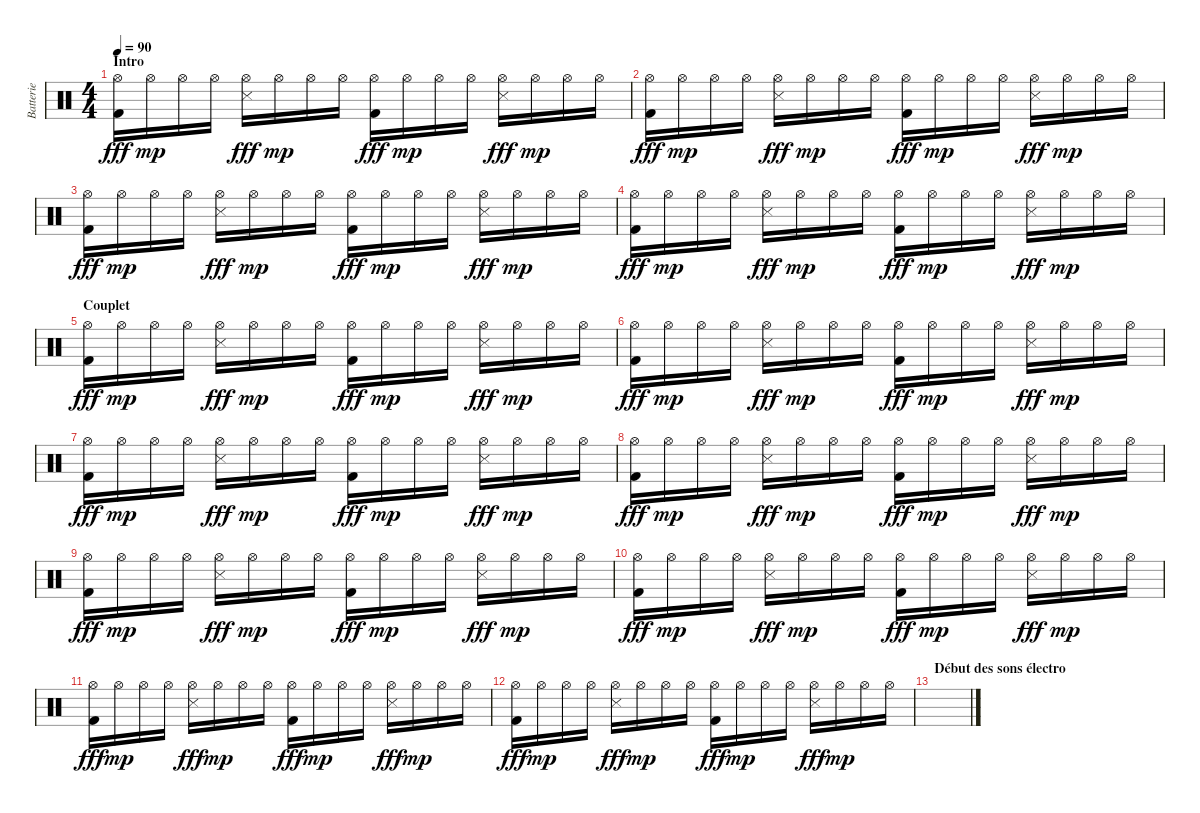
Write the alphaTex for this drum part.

\track ("Batterie" "Batterie") {instrument percussion}
\staff {score}
\articulation defaults
\ts (4 4)
\section ("" "Intro")
\tempo 90
\clef neutral
\ks c
("Hi-Hat (open)" "Kick (hit) 2").16{dy fff} "Hi-Hat (open)".16{dy mp} "Hi-Hat (open)".16 "Hi-Hat (open)".16 ("Hi-Hat (open)" "Snare (side stick) 3").16{dy fff} "Hi-Hat (open)".16{dy mp} "Hi-Hat (open)".16 "Hi-Hat (open)".16 ("Hi-Hat (open)" "Kick (hit) 2").16{dy fff} "Hi-Hat (open)".16{dy mp} "Hi-Hat (open)".16 "Hi-Hat (open)".16 ("Hi-Hat (open)" "Snare (side stick) 3").16{dy fff} "Hi-Hat (open)".16{dy mp} "Hi-Hat (open)".16 "Hi-Hat (open)".16 |
("Hi-Hat (open)" "Kick (hit) 2").16{dy fff} "Hi-Hat (open)".16{dy mp} "Hi-Hat (open)".16 "Hi-Hat (open)".16 ("Hi-Hat (open)" "Snare (side stick) 3").16{dy fff} "Hi-Hat (open)".16{dy mp} "Hi-Hat (open)".16 "Hi-Hat (open)".16 ("Hi-Hat (open)" "Kick (hit) 2").16{dy fff} "Hi-Hat (open)".16{dy mp} "Hi-Hat (open)".16 "Hi-Hat (open)".16 ("Hi-Hat (open)" "Snare (side stick) 3").16{dy fff} "Hi-Hat (open)".16{dy mp} "Hi-Hat (open)".16 "Hi-Hat (open)".16 |
("Hi-Hat (open)" "Kick (hit) 2").16{dy fff} "Hi-Hat (open)".16{dy mp} "Hi-Hat (open)".16 "Hi-Hat (open)".16 ("Hi-Hat (open)" "Snare (side stick) 3").16{dy fff} "Hi-Hat (open)".16{dy mp} "Hi-Hat (open)".16 "Hi-Hat (open)".16 ("Hi-Hat (open)" "Kick (hit) 2").16{dy fff} "Hi-Hat (open)".16{dy mp} "Hi-Hat (open)".16 "Hi-Hat (open)".16 ("Hi-Hat (open)" "Snare (side stick) 3").16{dy fff} "Hi-Hat (open)".16{dy mp} "Hi-Hat (open)".16 "Hi-Hat (open)".16 |
("Hi-Hat (open)" "Kick (hit) 2").16{dy fff} "Hi-Hat (open)".16{dy mp} "Hi-Hat (open)".16 "Hi-Hat (open)".16 ("Hi-Hat (open)" "Snare (side stick) 3").16{dy fff} "Hi-Hat (open)".16{dy mp} "Hi-Hat (open)".16 "Hi-Hat (open)".16 ("Hi-Hat (open)" "Kick (hit) 2").16{dy fff} "Hi-Hat (open)".16{dy mp} "Hi-Hat (open)".16 "Hi-Hat (open)".16 ("Hi-Hat (open)" "Snare (side stick) 3").16{dy fff} "Hi-Hat (open)".16{dy mp} "Hi-Hat (open)".16 "Hi-Hat (open)".16 |
\section ("" "Couplet")
("Hi-Hat (open)" "Kick (hit) 2").16{dy fff} "Hi-Hat (open)".16{dy mp} "Hi-Hat (open)".16 "Hi-Hat (open)".16 ("Hi-Hat (open)" "Snare (side stick) 3").16{dy fff} "Hi-Hat (open)".16{dy mp} "Hi-Hat (open)".16 "Hi-Hat (open)".16 ("Hi-Hat (open)" "Kick (hit) 2").16{dy fff} "Hi-Hat (open)".16{dy mp} "Hi-Hat (open)".16 "Hi-Hat (open)".16 ("Hi-Hat (open)" "Snare (side stick) 3").16{dy fff} "Hi-Hat (open)".16{dy mp} "Hi-Hat (open)".16 "Hi-Hat (open)".16 |
("Hi-Hat (open)" "Kick (hit) 2").16{dy fff} "Hi-Hat (open)".16{dy mp} "Hi-Hat (open)".16 "Hi-Hat (open)".16 ("Hi-Hat (open)" "Snare (side stick) 3").16{dy fff} "Hi-Hat (open)".16{dy mp} "Hi-Hat (open)".16 "Hi-Hat (open)".16 ("Hi-Hat (open)" "Kick (hit) 2").16{dy fff} "Hi-Hat (open)".16{dy mp} "Hi-Hat (open)".16 "Hi-Hat (open)".16 ("Hi-Hat (open)" "Snare (side stick) 3").16{dy fff} "Hi-Hat (open)".16{dy mp} "Hi-Hat (open)".16 "Hi-Hat (open)".16 |
("Hi-Hat (open)" "Kick (hit) 2").16{dy fff} "Hi-Hat (open)".16{dy mp} "Hi-Hat (open)".16 "Hi-Hat (open)".16 ("Hi-Hat (open)" "Snare (side stick) 3").16{dy fff} "Hi-Hat (open)".16{dy mp} "Hi-Hat (open)".16 "Hi-Hat (open)".16 ("Hi-Hat (open)" "Kick (hit) 2").16{dy fff} "Hi-Hat (open)".16{dy mp} "Hi-Hat (open)".16 "Hi-Hat (open)".16 ("Hi-Hat (open)" "Snare (side stick) 3").16{dy fff} "Hi-Hat (open)".16{dy mp} "Hi-Hat (open)".16 "Hi-Hat (open)".16 |
("Hi-Hat (open)" "Kick (hit) 2").16{dy fff} "Hi-Hat (open)".16{dy mp} "Hi-Hat (open)".16 "Hi-Hat (open)".16 ("Hi-Hat (open)" "Snare (side stick) 3").16{dy fff} "Hi-Hat (open)".16{dy mp} "Hi-Hat (open)".16 "Hi-Hat (open)".16 ("Hi-Hat (open)" "Kick (hit) 2").16{dy fff} "Hi-Hat (open)".16{dy mp} "Hi-Hat (open)".16 "Hi-Hat (open)".16 ("Hi-Hat (open)" "Snare (side stick) 3").16{dy fff} "Hi-Hat (open)".16{dy mp} "Hi-Hat (open)".16 "Hi-Hat (open)".16 |
("Hi-Hat (open)" "Kick (hit) 2").16{dy fff} "Hi-Hat (open)".16{dy mp} "Hi-Hat (open)".16 "Hi-Hat (open)".16 ("Hi-Hat (open)" "Snare (side stick) 3").16{dy fff} "Hi-Hat (open)".16{dy mp} "Hi-Hat (open)".16 "Hi-Hat (open)".16 ("Hi-Hat (open)" "Kick (hit) 2").16{dy fff} "Hi-Hat (open)".16{dy mp} "Hi-Hat (open)".16 "Hi-Hat (open)".16 ("Hi-Hat (open)" "Snare (side stick) 3").16{dy fff} "Hi-Hat (open)".16{dy mp} "Hi-Hat (open)".16 "Hi-Hat (open)".16 |
("Hi-Hat (open)" "Kick (hit) 2").16{dy fff} "Hi-Hat (open)".16{dy mp} "Hi-Hat (open)".16 "Hi-Hat (open)".16 ("Hi-Hat (open)" "Snare (side stick) 3").16{dy fff} "Hi-Hat (open)".16{dy mp} "Hi-Hat (open)".16 "Hi-Hat (open)".16 ("Hi-Hat (open)" "Kick (hit) 2").16{dy fff} "Hi-Hat (open)".16{dy mp} "Hi-Hat (open)".16 "Hi-Hat (open)".16 ("Hi-Hat (open)" "Snare (side stick) 3").16{dy fff} "Hi-Hat (open)".16{dy mp} "Hi-Hat (open)".16 "Hi-Hat (open)".16 |
("Hi-Hat (open)" "Kick (hit) 2").16{dy fff} "Hi-Hat (open)".16{dy mp} "Hi-Hat (open)".16 "Hi-Hat (open)".16 ("Hi-Hat (open)" "Snare (side stick) 3").16{dy fff} "Hi-Hat (open)".16{dy mp} "Hi-Hat (open)".16 "Hi-Hat (open)".16 ("Hi-Hat (open)" "Kick (hit) 2").16{dy fff} "Hi-Hat (open)".16{dy mp} "Hi-Hat (open)".16 "Hi-Hat (open)".16 ("Hi-Hat (open)" "Snare (side stick) 3").16{dy fff} "Hi-Hat (open)".16{dy mp} "Hi-Hat (open)".16 "Hi-Hat (open)".16 |
("Hi-Hat (open)" "Kick (hit) 2").16{dy fff} "Hi-Hat (open)".16{dy mp} "Hi-Hat (open)".16 "Hi-Hat (open)".16 ("Hi-Hat (open)" "Snare (side stick) 3").16{dy fff} "Hi-Hat (open)".16{dy mp} "Hi-Hat (open)".16 "Hi-Hat (open)".16 ("Hi-Hat (open)" "Kick (hit) 2").16{dy fff} "Hi-Hat (open)".16{dy mp} "Hi-Hat (open)".16 "Hi-Hat (open)".16 ("Hi-Hat (open)" "Snare (side stick) 3").16{dy fff} "Hi-Hat (open)".16{dy mp} "Hi-Hat (open)".16 "Hi-Hat (open)".16 |
\section ("" "Début des sons électro")
